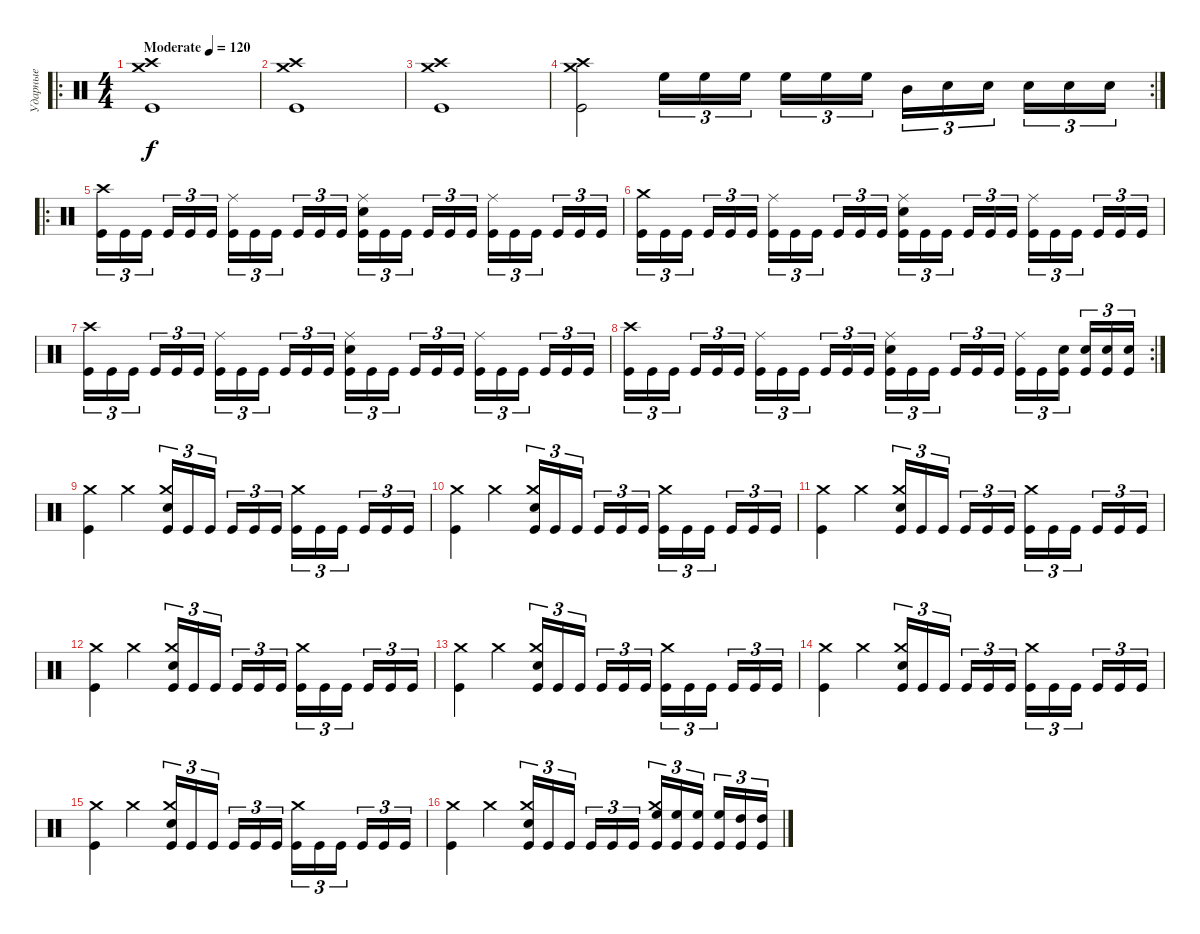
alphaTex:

\track ("Ударные" "Ударные") {instrument percussion}
\staff {score}
\articulation defaults
\ro
\ts (4 4)
\tempo (120 "Moderate")
\clef neutral
\ks c
("Kick (hit)" "Crash medium (hit)" "Crash high (hit)").1{dy f} |
("Kick (hit)" "Crash medium (hit)" "Crash high (hit)").1 |
("Kick (hit)" "Crash medium (hit)" "Crash high (hit)").1 |
\rc 2
("Kick (hit)" "Crash medium (hit)" "Crash high (hit)").2 "High Floor Tom (hit)".16{tu (3 2)} "High Floor Tom (hit)".16{tu (3 2)} "High Floor Tom (hit)".16{tu (3 2) beam splitsecondary} "High Floor Tom (hit)".16{tu (3 2)} "High Floor Tom (hit)".16{tu (3 2)} "High Floor Tom (hit)".16{tu (3 2)} "Mid Tom (hit)".16{tu (3 2)} "Snare (hit) 2".16{tu (3 2)} "Snare (hit) 2".16{tu (3 2) beam splitsecondary} "Snare (hit) 2".16{tu (3 2)} "Snare (hit) 2".16{tu (3 2)} "Snare (hit) 2".16{tu (3 2)} |
\ro
("Crash high (hit)" "Kick (hit)").16{tu (3 2)} "Kick (hit)".16{tu (3 2)} "Kick (hit)".16{tu (3 2) beam splitsecondary} "Kick (hit)".16{tu (3 2)} "Kick (hit)".16{tu (3 2)} "Kick (hit)".16{tu (3 2)} ("Ride (middle)" "Kick (hit)").16{tu (3 2)} "Kick (hit)".16{tu (3 2)} "Kick (hit)".16{tu (3 2) beam splitsecondary} "Kick (hit)".16{tu (3 2)} "Kick (hit)".16{tu (3 2)} "Kick (hit)".16{tu (3 2)} ("Ride (middle)" "Snare (hit) 2" "Kick (hit)").16{tu (3 2)} "Kick (hit)".16{tu (3 2)} "Kick (hit)".16{tu (3 2) beam splitsecondary} "Kick (hit)".16{tu (3 2)} "Kick (hit)".16{tu (3 2)} "Kick (hit)".16{tu (3 2)} ("Ride (middle)" "Kick (hit)").16{tu (3 2)} "Kick (hit)".16{tu (3 2)} "Kick (hit)".16{tu (3 2) beam splitsecondary} "Kick (hit)".16{tu (3 2)} "Kick (hit)".16{tu (3 2)} "Kick (hit)".16{tu (3 2)} |
("Crash medium (hit)" "Kick (hit)").16{tu (3 2)} "Kick (hit)".16{tu (3 2)} "Kick (hit)".16{tu (3 2) beam splitsecondary} "Kick (hit)".16{tu (3 2)} "Kick (hit)".16{tu (3 2)} "Kick (hit)".16{tu (3 2)} ("Ride (middle)" "Kick (hit)").16{tu (3 2)} "Kick (hit)".16{tu (3 2)} "Kick (hit)".16{tu (3 2) beam splitsecondary} "Kick (hit)".16{tu (3 2)} "Kick (hit)".16{tu (3 2)} "Kick (hit)".16{tu (3 2)} ("Ride (middle)" "Snare (hit) 2" "Kick (hit)").16{tu (3 2)} "Kick (hit)".16{tu (3 2)} "Kick (hit)".16{tu (3 2) beam splitsecondary} "Kick (hit)".16{tu (3 2)} "Kick (hit)".16{tu (3 2)} "Kick (hit)".16{tu (3 2)} ("Ride (middle)" "Kick (hit)").16{tu (3 2)} "Kick (hit)".16{tu (3 2)} "Kick (hit)".16{tu (3 2) beam splitsecondary} "Kick (hit)".16{tu (3 2)} "Kick (hit)".16{tu (3 2)} "Kick (hit)".16{tu (3 2)} |
("Crash high (hit)" "Kick (hit)").16{tu (3 2)} "Kick (hit)".16{tu (3 2)} "Kick (hit)".16{tu (3 2) beam splitsecondary} "Kick (hit)".16{tu (3 2)} "Kick (hit)".16{tu (3 2)} "Kick (hit)".16{tu (3 2)} ("Ride (middle)" "Kick (hit)").16{tu (3 2)} "Kick (hit)".16{tu (3 2)} "Kick (hit)".16{tu (3 2) beam splitsecondary} "Kick (hit)".16{tu (3 2)} "Kick (hit)".16{tu (3 2)} "Kick (hit)".16{tu (3 2)} ("Ride (middle)" "Snare (hit) 2" "Kick (hit)").16{tu (3 2)} "Kick (hit)".16{tu (3 2)} "Kick (hit)".16{tu (3 2) beam splitsecondary} "Kick (hit)".16{tu (3 2)} "Kick (hit)".16{tu (3 2)} "Kick (hit)".16{tu (3 2)} ("Ride (middle)" "Kick (hit)").16{tu (3 2)} "Kick (hit)".16{tu (3 2)} "Kick (hit)".16{tu (3 2) beam splitsecondary} "Kick (hit)".16{tu (3 2)} "Kick (hit)".16{tu (3 2)} "Kick (hit)".16{tu (3 2)} |
\rc 2
("Crash high (hit)" "Kick (hit)").16{tu (3 2)} "Kick (hit)".16{tu (3 2)} "Kick (hit)".16{tu (3 2) beam splitsecondary} "Kick (hit)".16{tu (3 2)} "Kick (hit)".16{tu (3 2)} "Kick (hit)".16{tu (3 2)} ("Ride (middle)" "Kick (hit)").16{tu (3 2)} "Kick (hit)".16{tu (3 2)} "Kick (hit)".16{tu (3 2) beam splitsecondary} "Kick (hit)".16{tu (3 2)} "Kick (hit)".16{tu (3 2)} "Kick (hit)".16{tu (3 2)} ("Ride (middle)" "Snare (hit) 2" "Kick (hit)").16{tu (3 2)} "Kick (hit)".16{tu (3 2)} "Kick (hit)".16{tu (3 2) beam splitsecondary} "Kick (hit)".16{tu (3 2)} "Kick (hit)".16{tu (3 2)} "Kick (hit)".16{tu (3 2)} ("Ride (middle)" "Kick (hit)").16{tu (3 2)} "Kick (hit)".16{tu (3 2)} ("Snare (hit) 2" "Kick (hit)").16{tu (3 2) beam splitsecondary} ("Snare (hit) 2" "Kick (hit)").16{tu (3 2)} ("Snare (hit) 2" "Kick (hit)").16{tu (3 2)} ("Snare (hit) 2" "Kick (hit)").16{tu (3 2)} |
("Kick (hit)" "Crash medium (hit)").4 "Crash medium (hit)".4 ("Crash medium (hit)" "Snare (hit) 2" "Kick (hit)").16{tu (3 2)} "Kick (hit)".16{tu (3 2)} "Kick (hit)".16{tu (3 2) beam splitsecondary} "Kick (hit)".16{tu (3 2)} "Kick (hit)".16{tu (3 2)} "Kick (hit)".16{tu (3 2)} ("Crash medium (hit)" "Kick (hit)").16{tu (3 2)} "Kick (hit)".16{tu (3 2)} "Kick (hit)".16{tu (3 2) beam splitsecondary} "Kick (hit)".16{tu (3 2)} "Kick (hit)".16{tu (3 2)} "Kick (hit)".16{tu (3 2)} |
("Kick (hit)" "Crash medium (hit)").4 "Crash medium (hit)".4 ("Crash medium (hit)" "Snare (hit) 2" "Kick (hit)").16{tu (3 2)} "Kick (hit)".16{tu (3 2)} "Kick (hit)".16{tu (3 2) beam splitsecondary} "Kick (hit)".16{tu (3 2)} "Kick (hit)".16{tu (3 2)} "Kick (hit)".16{tu (3 2)} ("Crash medium (hit)" "Kick (hit)").16{tu (3 2)} "Kick (hit)".16{tu (3 2)} "Kick (hit)".16{tu (3 2) beam splitsecondary} "Kick (hit)".16{tu (3 2)} "Kick (hit)".16{tu (3 2)} "Kick (hit)".16{tu (3 2)} |
("Kick (hit)" "Crash medium (hit)").4 "Crash medium (hit)".4 ("Crash medium (hit)" "Snare (hit) 2" "Kick (hit)").16{tu (3 2)} "Kick (hit)".16{tu (3 2)} "Kick (hit)".16{tu (3 2) beam splitsecondary} "Kick (hit)".16{tu (3 2)} "Kick (hit)".16{tu (3 2)} "Kick (hit)".16{tu (3 2)} ("Crash medium (hit)" "Kick (hit)").16{tu (3 2)} "Kick (hit)".16{tu (3 2)} "Kick (hit)".16{tu (3 2) beam splitsecondary} "Kick (hit)".16{tu (3 2)} "Kick (hit)".16{tu (3 2)} "Kick (hit)".16{tu (3 2)} |
("Kick (hit)" "Crash medium (hit)").4 "Crash medium (hit)".4 ("Crash medium (hit)" "Snare (hit) 2" "Kick (hit)").16{tu (3 2)} "Kick (hit)".16{tu (3 2)} "Kick (hit)".16{tu (3 2) beam splitsecondary} "Kick (hit)".16{tu (3 2)} "Kick (hit)".16{tu (3 2)} "Kick (hit)".16{tu (3 2)} ("Crash medium (hit)" "Kick (hit)").16{tu (3 2)} "Kick (hit)".16{tu (3 2)} "Kick (hit)".16{tu (3 2) beam splitsecondary} "Kick (hit)".16{tu (3 2)} "Kick (hit)".16{tu (3 2)} "Kick (hit)".16{tu (3 2)} |
("Kick (hit)" "Crash medium (hit)").4 "Crash medium (hit)".4 ("Crash medium (hit)" "Snare (hit) 2" "Kick (hit)").16{tu (3 2)} "Kick (hit)".16{tu (3 2)} "Kick (hit)".16{tu (3 2) beam splitsecondary} "Kick (hit)".16{tu (3 2)} "Kick (hit)".16{tu (3 2)} "Kick (hit)".16{tu (3 2)} ("Crash medium (hit)" "Kick (hit)").16{tu (3 2)} "Kick (hit)".16{tu (3 2)} "Kick (hit)".16{tu (3 2) beam splitsecondary} "Kick (hit)".16{tu (3 2)} "Kick (hit)".16{tu (3 2)} "Kick (hit)".16{tu (3 2)} |
("Kick (hit)" "Crash medium (hit)").4 "Crash medium (hit)".4 ("Crash medium (hit)" "Snare (hit) 2" "Kick (hit)").16{tu (3 2)} "Kick (hit)".16{tu (3 2)} "Kick (hit)".16{tu (3 2) beam splitsecondary} "Kick (hit)".16{tu (3 2)} "Kick (hit)".16{tu (3 2)} "Kick (hit)".16{tu (3 2)} ("Crash medium (hit)" "Kick (hit)").16{tu (3 2)} "Kick (hit)".16{tu (3 2)} "Kick (hit)".16{tu (3 2) beam splitsecondary} "Kick (hit)".16{tu (3 2)} "Kick (hit)".16{tu (3 2)} "Kick (hit)".16{tu (3 2)} |
("Kick (hit)" "Crash medium (hit)").4 "Crash medium (hit)".4 ("Crash medium (hit)" "Snare (hit) 2" "Kick (hit)").16{tu (3 2)} "Kick (hit)".16{tu (3 2)} "Kick (hit)".16{tu (3 2) beam splitsecondary} "Kick (hit)".16{tu (3 2)} "Kick (hit)".16{tu (3 2)} "Kick (hit)".16{tu (3 2)} ("Crash medium (hit)" "Kick (hit)").16{tu (3 2)} "Kick (hit)".16{tu (3 2)} "Kick (hit)".16{tu (3 2) beam splitsecondary} "Kick (hit)".16{tu (3 2)} "Kick (hit)".16{tu (3 2)} "Kick (hit)".16{tu (3 2)} |
("Kick (hit)" "Crash medium (hit)").4 "Crash medium (hit)".4 ("Crash medium (hit)" "Snare (hit) 2" "Kick (hit)").16{tu (3 2)} "Kick (hit)".16{tu (3 2)} "Kick (hit)".16{tu (3 2) beam splitsecondary} "Kick (hit)".16{tu (3 2)} "Kick (hit)".16{tu (3 2)} "Kick (hit)".16{tu (3 2)} ("Crash medium (hit)" "High Floor Tom (hit)" "Kick (hit)").16{tu (3 2)} ("High Floor Tom (hit)" "Kick (hit)").16{tu (3 2)} ("High Floor Tom (hit)" "Kick (hit)").16{tu (3 2) beam splitsecondary} ("High Floor Tom (hit)" "Kick (hit)").16{tu (3 2)} ("High Tom (hit)" "Kick (hit)").16{tu (3 2)} ("High Tom (hit)" "Kick (hit)").16{tu (3 2)}
